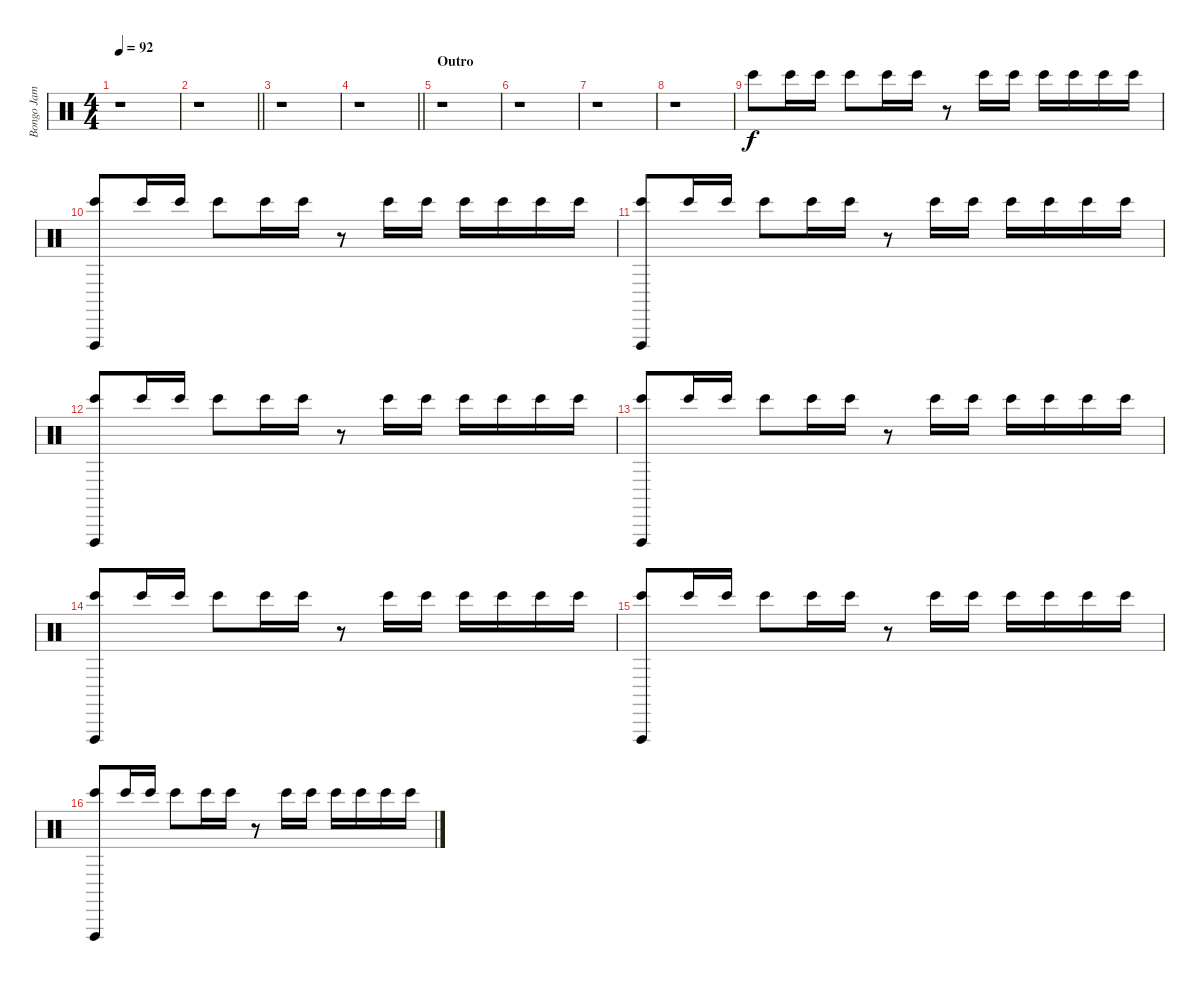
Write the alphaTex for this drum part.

\track ("Bongo Jam and Vibraslap" "Bongo Jam ") {instrument percussion}
\staff {score}
\articulation defaults
\ts (4 4)
\tempo 92
\clef neutral
\ks c
r.1{dy f} |
\barLineRight lightlight
r.1 |
r.1 |
\barLineRight lightlight
r.1 |
\section ("" "Outro")
r.1 |
r.1 |
r.1 |
r.1{volume 4} |
"Bongo High (hit)".8{volume 14} "Bongo High (hit)".16 "Bongo High (hit)".16 "Bongo High (hit)".8 "Bongo High (hit)".16 "Bongo High (hit)".16 r.8 "Bongo High (hit)".16 "Bongo High (hit)".16 "Bongo High (hit)".16 "Bongo High (hit)".16 "Bongo High (hit)".16 "Bongo High (hit)".16 |
("Bongo High (hit)" "Vibraslap (hit)").8 "Bongo High (hit)".16 "Bongo High (hit)".16 "Bongo High (hit)".8 "Bongo High (hit)".16 "Bongo High (hit)".16 r.8 "Bongo High (hit)".16 "Bongo High (hit)".16 "Bongo High (hit)".16 "Bongo High (hit)".16 "Bongo High (hit)".16 "Bongo High (hit)".16 |
("Bongo High (hit)" "Vibraslap (hit)").8 "Bongo High (hit)".16 "Bongo High (hit)".16 "Bongo High (hit)".8 "Bongo High (hit)".16 "Bongo High (hit)".16 r.8 "Bongo High (hit)".16 "Bongo High (hit)".16 "Bongo High (hit)".16 "Bongo High (hit)".16 "Bongo High (hit)".16 "Bongo High (hit)".16 |
("Bongo High (hit)" "Vibraslap (hit)").8 "Bongo High (hit)".16 "Bongo High (hit)".16 "Bongo High (hit)".8 "Bongo High (hit)".16 "Bongo High (hit)".16 r.8 "Bongo High (hit)".16 "Bongo High (hit)".16 "Bongo High (hit)".16 "Bongo High (hit)".16 "Bongo High (hit)".16 "Bongo High (hit)".16 |
("Bongo High (hit)" "Vibraslap (hit)").8 "Bongo High (hit)".16 "Bongo High (hit)".16 "Bongo High (hit)".8 "Bongo High (hit)".16 "Bongo High (hit)".16 r.8 "Bongo High (hit)".16 "Bongo High (hit)".16 "Bongo High (hit)".16 "Bongo High (hit)".16 "Bongo High (hit)".16 "Bongo High (hit)".16 |
("Bongo High (hit)" "Vibraslap (hit)").8 "Bongo High (hit)".16 "Bongo High (hit)".16 "Bongo High (hit)".8 "Bongo High (hit)".16 "Bongo High (hit)".16 r.8 "Bongo High (hit)".16 "Bongo High (hit)".16 "Bongo High (hit)".16 "Bongo High (hit)".16 "Bongo High (hit)".16 "Bongo High (hit)".16 |
("Bongo High (hit)" "Vibraslap (hit)").8 "Bongo High (hit)".16 "Bongo High (hit)".16 "Bongo High (hit)".8 "Bongo High (hit)".16 "Bongo High (hit)".16 r.8 "Bongo High (hit)".16 "Bongo High (hit)".16 "Bongo High (hit)".16 "Bongo High (hit)".16 "Bongo High (hit)".16 "Bongo High (hit)".16 |
("Bongo High (hit)" "Vibraslap (hit)").8 "Bongo High (hit)".16 "Bongo High (hit)".16 "Bongo High (hit)".8 "Bongo High (hit)".16 "Bongo High (hit)".16 r.8 "Bongo High (hit)".16 "Bongo High (hit)".16 "Bongo High (hit)".16 "Bongo High (hit)".16 "Bongo High (hit)".16 "Bongo High (hit)".16
